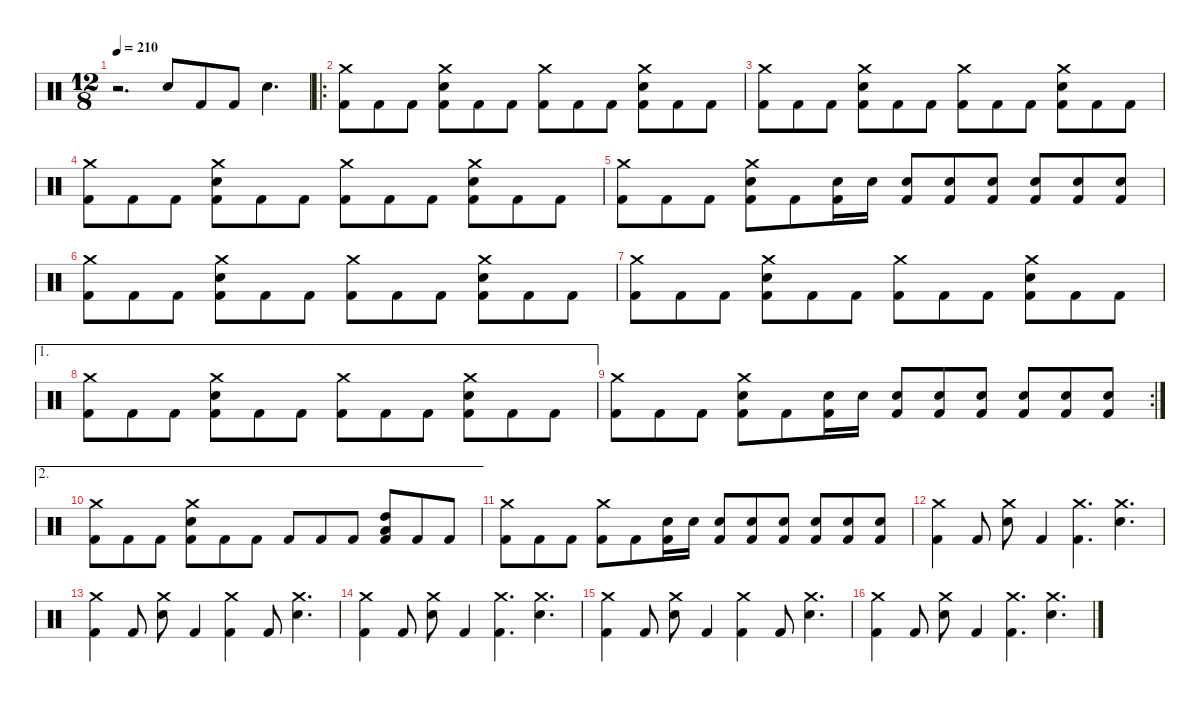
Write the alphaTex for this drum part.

\defaultSystemsLayout 4
\hideDynamics
\bracketExtendMode nobrackets
\singleTrackTrackNamePolicy hidden
\multiTrackTrackNamePolicy hidden
\firstSystemTrackNameMode fullname
\firstSystemTrackNameOrientation horizontal
\otherSystemsTrackNameOrientation horizontal
\track ("Beats" "drm.") {instrument percussion}
\staff {score}
\articulation defaults
\ts (12 8)
\beaming (8 3 3 3 3)
\tempo 210
\clef neutral
\ks c
r.2{d dy f} "Snare (hit) 2".8 "Kick (hit) 2".8 "Kick (hit) 2".8 "Snare (hit) 2".4{d} |
\ro
("Crash medium (hit)" "Kick (hit) 2").8{dy fff} "Kick (hit) 2".8{dy f} "Kick (hit) 2".8 ("Crash medium (hit)" "Snare (hit) 2" "Kick (hit) 2").8 "Kick (hit) 2".8 "Kick (hit) 2".8 ("Crash medium (hit)" "Kick (hit) 2").8 "Kick (hit) 2".8 "Kick (hit) 2".8 ("Crash medium (hit)" "Snare (hit) 2" "Kick (hit) 2").8 "Kick (hit) 2".8 "Kick (hit) 2".8 |
("Crash medium (hit)" "Kick (hit) 2").8{dy fff} "Kick (hit) 2".8{dy f} "Kick (hit) 2".8 ("Crash medium (hit)" "Snare (hit) 2" "Kick (hit) 2").8 "Kick (hit) 2".8 "Kick (hit) 2".8 ("Crash medium (hit)" "Kick (hit) 2").8 "Kick (hit) 2".8 "Kick (hit) 2".8 ("Crash medium (hit)" "Snare (hit) 2" "Kick (hit) 2").8 "Kick (hit) 2".8 "Kick (hit) 2".8 |
("Crash medium (hit)" "Kick (hit) 2").8{dy fff} "Kick (hit) 2".8{dy f} "Kick (hit) 2".8 ("Crash medium (hit)" "Snare (hit) 2" "Kick (hit) 2").8 "Kick (hit) 2".8 "Kick (hit) 2".8 ("Crash medium (hit)" "Kick (hit) 2").8 "Kick (hit) 2".8 "Kick (hit) 2".8 ("Crash medium (hit)" "Snare (hit) 2" "Kick (hit) 2").8 "Kick (hit) 2".8 "Kick (hit) 2".8 |
("Crash medium (hit)" "Kick (hit) 2").8 "Kick (hit) 2".8 "Kick (hit) 2".8 ("Crash medium (hit)" "Snare (hit) 2" "Kick (hit) 2").8 "Kick (hit) 2".8 ("Snare (hit) 2" "Kick (hit) 2").16 "Snare (hit) 2".16 ("Snare (hit) 2" "Kick (hit) 2").8{dy fff} ("Snare (hit) 2" "Kick (hit) 2").8{dy f} ("Snare (hit) 2" "Kick (hit) 2").8 ("Snare (hit) 2" "Kick (hit) 2").8{dy fff} ("Snare (hit) 2" "Kick (hit) 2").8{dy f} ("Snare (hit) 2" "Kick (hit) 2").8 |
("Crash medium (hit)" "Kick (hit) 2").8{dy fff} "Kick (hit) 2".8{dy f} "Kick (hit) 2".8 ("Crash medium (hit)" "Snare (hit) 2" "Kick (hit) 2").8 "Kick (hit) 2".8 "Kick (hit) 2".8 ("Crash medium (hit)" "Kick (hit) 2").8 "Kick (hit) 2".8 "Kick (hit) 2".8 ("Crash medium (hit)" "Snare (hit) 2" "Kick (hit) 2").8 "Kick (hit) 2".8 "Kick (hit) 2".8 |
("Crash medium (hit)" "Kick (hit) 2").8{dy fff} "Kick (hit) 2".8{dy f} "Kick (hit) 2".8 ("Crash medium (hit)" "Snare (hit) 2" "Kick (hit) 2").8 "Kick (hit) 2".8 "Kick (hit) 2".8 ("Crash medium (hit)" "Kick (hit) 2").8 "Kick (hit) 2".8 "Kick (hit) 2".8 ("Crash medium (hit)" "Snare (hit) 2" "Kick (hit) 2").8 "Kick (hit) 2".8 "Kick (hit) 2".8 |
\ae 1
("Crash medium (hit)" "Kick (hit) 2").8{dy fff} "Kick (hit) 2".8{dy f} "Kick (hit) 2".8 ("Crash medium (hit)" "Snare (hit) 2" "Kick (hit) 2").8 "Kick (hit) 2".8 "Kick (hit) 2".8 ("Crash medium (hit)" "Kick (hit) 2").8 "Kick (hit) 2".8 "Kick (hit) 2".8 ("Crash medium (hit)" "Snare (hit) 2" "Kick (hit) 2").8 "Kick (hit) 2".8 "Kick (hit) 2".8 |
\rc 2
("Crash medium (hit)" "Kick (hit) 2").8 "Kick (hit) 2".8 "Kick (hit) 2".8 ("Crash medium (hit)" "Snare (hit) 2" "Kick (hit) 2").8 "Kick (hit) 2".8 ("Snare (hit) 2" "Kick (hit) 2").16 "Snare (hit) 2".16 ("Snare (hit) 2" "Kick (hit) 2").8{dy fff} ("Snare (hit) 2" "Kick (hit) 2").8{dy f} ("Snare (hit) 2" "Kick (hit) 2").8 ("Snare (hit) 2" "Kick (hit) 2").8{dy fff} ("Snare (hit) 2" "Kick (hit) 2").8{dy f} ("Snare (hit) 2" "Kick (hit) 2").8 |
\ae 2
("Crash medium (hit)" "Kick (hit) 2").8{dy fff} "Kick (hit) 2".8{dy f} "Kick (hit) 2".8 ("Crash medium (hit)" "Snare (hit) 2" "Kick (hit) 2").8 "Kick (hit) 2".8 "Kick (hit) 2".8 "Kick (hit) 2".8 "Kick (hit) 2".8 "Kick (hit) 2".8 ("High Tom (hit)" "Low Tom (hit)" "Kick (hit) 2").8{dy fff} "Kick (hit) 2".8{dy f} "Kick (hit) 2".8 |
("Crash medium (hit)" "Kick (hit) 2").8 "Kick (hit) 2".8 "Kick (hit) 2".8 ("Crash medium (hit)" "Kick (hit) 2").8 "Kick (hit) 2".8 ("Snare (hit) 2" "Kick (hit) 2").16 "Snare (hit) 2".16 ("Snare (hit) 2" "Kick (hit) 2").8{dy fff} ("Snare (hit) 2" "Kick (hit) 2").8{dy f} ("Snare (hit) 2" "Kick (hit) 2").8 ("Snare (hit) 2" "Kick (hit) 2").8{dy fff} ("Snare (hit) 2" "Kick (hit) 2").8{dy f} ("Snare (hit) 2" "Kick (hit) 2").8 |
("Crash medium (hit)" "Kick (hit) 2").4 "Kick (hit) 2".8 ("Crash medium (hit)" "Snare (hit) 2").8 "Kick (hit) 2".4 ("Crash medium (hit)" "Kick (hit) 2").4{d} ("Crash medium (hit)" "Snare (hit) 2").4{d} |
("Crash medium (hit)" "Kick (hit) 2").4 "Kick (hit) 2".8 ("Crash medium (hit)" "Snare (hit) 2").8 "Kick (hit) 2".4 ("Crash medium (hit)" "Kick (hit) 2").4 "Kick (hit) 2".8 ("Crash medium (hit)" "Snare (hit) 2").4{d} |
("Crash medium (hit)" "Kick (hit) 2").4 "Kick (hit) 2".8 ("Crash medium (hit)" "Snare (hit) 2").8 "Kick (hit) 2".4 ("Crash medium (hit)" "Kick (hit) 2").4{d} ("Crash medium (hit)" "Snare (hit) 2").4{d} |
("Crash medium (hit)" "Kick (hit) 2").4 "Kick (hit) 2".8 ("Crash medium (hit)" "Snare (hit) 2").8 "Kick (hit) 2".4 ("Crash medium (hit)" "Kick (hit) 2").4 "Kick (hit) 2".8 ("Crash medium (hit)" "Snare (hit) 2").4{d} |
("Crash medium (hit)" "Kick (hit) 2").4 "Kick (hit) 2".8 ("Crash medium (hit)" "Snare (hit) 2").8 "Kick (hit) 2".4 ("Crash medium (hit)" "Kick (hit) 2").4{d} ("Crash medium (hit)" "Snare (hit) 2").4{d}
